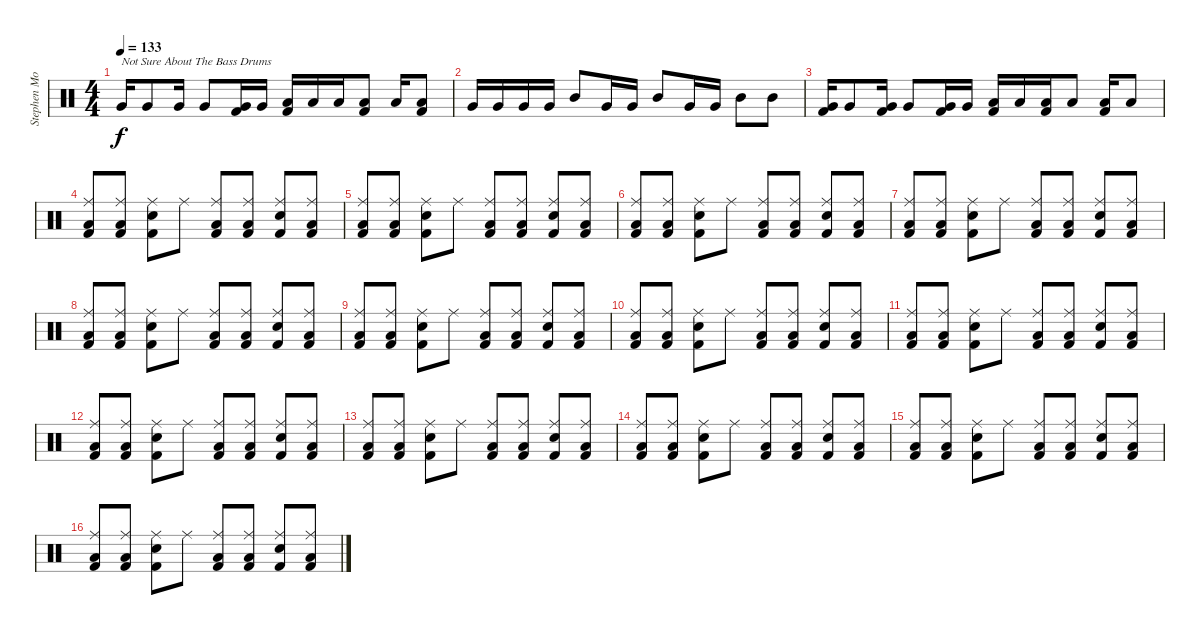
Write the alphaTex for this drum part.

\track ("Stephen Morris - Drums" "Stephen Mo") {instrument percussion}
\staff {score}
\articulation defaults
\ts (4 4)
\tempo 133
\clef neutral
\ks c "Very Low Tom (hit)".16{txt "Not Sure About The Bass Drums" dy f} "Very Low Tom (hit)".8 "Very Low Tom (hit)".16 "Very Low Tom (hit)".8
("Very Low Tom (hit)" "Kick (hit) 2").16 "Very Low Tom (hit)".16 ("Low Floor Tom (hit)" "Kick (hit) 2").16 "Low Floor Tom (hit)".16 "Low Floor Tom (hit)".16 ("Low Floor Tom (hit)" "Kick (hit) 2").8 "Low Floor Tom (hit)".16 ("Low Floor Tom (hit)" "Kick (hit) 2").8 |
"Very Low Tom (hit)".16 "Very Low Tom (hit)".16 "Very Low Tom (hit)".16 "Very Low Tom (hit)".16 "Mid Tom (hit)".8 "Very Low Tom (hit)".16 "Very Low Tom (hit)".16 "Mid Tom (hit)".8 "Very Low Tom (hit)".16 "Very Low Tom (hit)".16 "Mid Tom (hit)".8 "Mid Tom (hit)".8 |
("Very Low Tom (hit)" "Kick (hit) 2").16 "Very Low Tom (hit)".8 ("Very Low Tom (hit)" "Kick (hit) 2").16 "Very Low Tom (hit)".8 ("Very Low Tom (hit)" "Kick (hit) 2").16 "Very Low Tom (hit)".16 ("Low Floor Tom (hit)" "Kick (hit) 2").16 "Low Floor Tom (hit)".16 ("Low Floor Tom (hit)" "Kick (hit) 2").16 "Low Floor Tom (hit)".8 ("Low Floor Tom (hit)" "Kick (hit) 2").16 "Low Floor Tom (hit)".8 |
("Ride (middle)" "Low Tom (hit)" "Kick (hit) 2").8 ("Ride (middle)" "Low Tom (hit)" "Kick (hit) 2").8 ("Ride (middle)" "Electric Snare (hit)" "Kick (hit) 2").8 "Ride (middle)".8 ("Ride (middle)" "Low Tom (hit)" "Kick (hit) 2").8 ("Ride (middle)" "Low Tom (hit)" "Kick (hit) 2").8 ("Ride (middle)" "Electric Snare (hit)" "Kick (hit) 2").8 ("Ride (middle)" "Low Tom (hit)" "Kick (hit) 2").8 |
("Ride (middle)" "Low Tom (hit)" "Kick (hit) 2").8 ("Ride (middle)" "Low Tom (hit)" "Kick (hit) 2").8 ("Ride (middle)" "Electric Snare (hit)" "Kick (hit) 2").8 "Ride (middle)".8 ("Ride (middle)" "Low Tom (hit)" "Kick (hit) 2").8 ("Ride (middle)" "Low Tom (hit)" "Kick (hit) 2").8 ("Ride (middle)" "Electric Snare (hit)" "Kick (hit) 2").8 ("Ride (middle)" "Low Tom (hit)" "Kick (hit) 2").8 |
("Ride (middle)" "Low Tom (hit)" "Kick (hit) 2").8 ("Ride (middle)" "Low Tom (hit)" "Kick (hit) 2").8 ("Ride (middle)" "Electric Snare (hit)" "Kick (hit) 2").8 "Ride (middle)".8 ("Ride (middle)" "Low Tom (hit)" "Kick (hit) 2").8 ("Ride (middle)" "Low Tom (hit)" "Kick (hit) 2").8 ("Ride (middle)" "Electric Snare (hit)" "Kick (hit) 2").8 ("Ride (middle)" "Low Tom (hit)" "Kick (hit) 2").8 |
("Ride (middle)" "Low Tom (hit)" "Kick (hit) 2").8 ("Ride (middle)" "Low Tom (hit)" "Kick (hit) 2").8 ("Ride (middle)" "Electric Snare (hit)" "Kick (hit) 2").8 "Ride (middle)".8 ("Ride (middle)" "Low Tom (hit)" "Kick (hit) 2").8 ("Ride (middle)" "Low Tom (hit)" "Kick (hit) 2").8 ("Ride (middle)" "Electric Snare (hit)" "Kick (hit) 2").8 ("Ride (middle)" "Low Tom (hit)" "Kick (hit) 2").8 |
("Ride (middle)" "Low Tom (hit)" "Kick (hit) 2").8 ("Ride (middle)" "Low Tom (hit)" "Kick (hit) 2").8 ("Ride (middle)" "Electric Snare (hit)" "Kick (hit) 2").8 "Ride (middle)".8 ("Ride (middle)" "Low Tom (hit)" "Kick (hit) 2").8 ("Ride (middle)" "Low Tom (hit)" "Kick (hit) 2").8 ("Ride (middle)" "Electric Snare (hit)" "Kick (hit) 2").8 ("Ride (middle)" "Low Tom (hit)" "Kick (hit) 2").8 |
("Ride (middle)" "Low Tom (hit)" "Kick (hit) 2").8 ("Ride (middle)" "Low Tom (hit)" "Kick (hit) 2").8 ("Ride (middle)" "Electric Snare (hit)" "Kick (hit) 2").8 "Ride (middle)".8 ("Ride (middle)" "Low Tom (hit)" "Kick (hit) 2").8 ("Ride (middle)" "Low Tom (hit)" "Kick (hit) 2").8 ("Ride (middle)" "Electric Snare (hit)" "Kick (hit) 2").8 ("Ride (middle)" "Low Tom (hit)" "Kick (hit) 2").8 |
("Ride (middle)" "Low Tom (hit)" "Kick (hit) 2").8 ("Ride (middle)" "Low Tom (hit)" "Kick (hit) 2").8 ("Ride (middle)" "Electric Snare (hit)" "Kick (hit) 2").8 "Ride (middle)".8 ("Ride (middle)" "Low Tom (hit)" "Kick (hit) 2").8 ("Ride (middle)" "Low Tom (hit)" "Kick (hit) 2").8 ("Ride (middle)" "Electric Snare (hit)" "Kick (hit) 2").8 ("Ride (middle)" "Low Tom (hit)" "Kick (hit) 2").8 |
("Ride (middle)" "Low Tom (hit)" "Kick (hit) 2").8 ("Ride (middle)" "Low Tom (hit)" "Kick (hit) 2").8 ("Ride (middle)" "Electric Snare (hit)" "Kick (hit) 2").8 "Ride (middle)".8 ("Ride (middle)" "Low Tom (hit)" "Kick (hit) 2").8 ("Ride (middle)" "Low Tom (hit)" "Kick (hit) 2").8 ("Ride (middle)" "Electric Snare (hit)" "Kick (hit) 2").8 ("Ride (middle)" "Low Tom (hit)" "Kick (hit) 2").8 |
("Ride (middle)" "Low Tom (hit)" "Kick (hit) 2").8 ("Ride (middle)" "Low Tom (hit)" "Kick (hit) 2").8 ("Ride (middle)" "Electric Snare (hit)" "Kick (hit) 2").8 "Ride (middle)".8 ("Ride (middle)" "Low Tom (hit)" "Kick (hit) 2").8 ("Ride (middle)" "Low Tom (hit)" "Kick (hit) 2").8 ("Ride (middle)" "Electric Snare (hit)" "Kick (hit) 2").8 ("Ride (middle)" "Low Tom (hit)" "Kick (hit) 2").8 |
("Ride (middle)" "Low Tom (hit)" "Kick (hit) 2").8 ("Ride (middle)" "Low Tom (hit)" "Kick (hit) 2").8 ("Ride (middle)" "Electric Snare (hit)" "Kick (hit) 2").8 "Ride (middle)".8 ("Ride (middle)" "Low Tom (hit)" "Kick (hit) 2").8 ("Ride (middle)" "Low Tom (hit)" "Kick (hit) 2").8 ("Ride (middle)" "Electric Snare (hit)" "Kick (hit) 2").8 ("Ride (middle)" "Low Tom (hit)" "Kick (hit) 2").8 |
("Ride (middle)" "Low Tom (hit)" "Kick (hit) 2").8 ("Ride (middle)" "Low Tom (hit)" "Kick (hit) 2").8 ("Ride (middle)" "Electric Snare (hit)" "Kick (hit) 2").8 "Ride (middle)".8 ("Ride (middle)" "Low Tom (hit)" "Kick (hit) 2").8 ("Ride (middle)" "Low Tom (hit)" "Kick (hit) 2").8 ("Ride (middle)" "Electric Snare (hit)" "Kick (hit) 2").8 ("Ride (middle)" "Low Tom (hit)" "Kick (hit) 2").8 |
("Ride (middle)" "Low Tom (hit)" "Kick (hit) 2").8 ("Ride (middle)" "Low Tom (hit)" "Kick (hit) 2").8 ("Ride (middle)" "Electric Snare (hit)" "Kick (hit) 2").8 "Ride (middle)".8 ("Ride (middle)" "Low Tom (hit)" "Kick (hit) 2").8 ("Ride (middle)" "Low Tom (hit)" "Kick (hit) 2").8 ("Ride (middle)" "Electric Snare (hit)" "Kick (hit) 2").8 ("Ride (middle)" "Low Tom (hit)" "Kick (hit) 2").8 |
("Ride (middle)" "Low Tom (hit)" "Kick (hit) 2").8 ("Ride (middle)" "Low Tom (hit)" "Kick (hit) 2").8 ("Ride (middle)" "Electric Snare (hit)" "Kick (hit) 2").8 "Ride (middle)".8 ("Ride (middle)" "Low Tom (hit)" "Kick (hit) 2").8 ("Ride (middle)" "Low Tom (hit)" "Kick (hit) 2").8 ("Ride (middle)" "Electric Snare (hit)" "Kick (hit) 2").8 ("Ride (middle)" "Low Tom (hit)" "Kick (hit) 2").8
